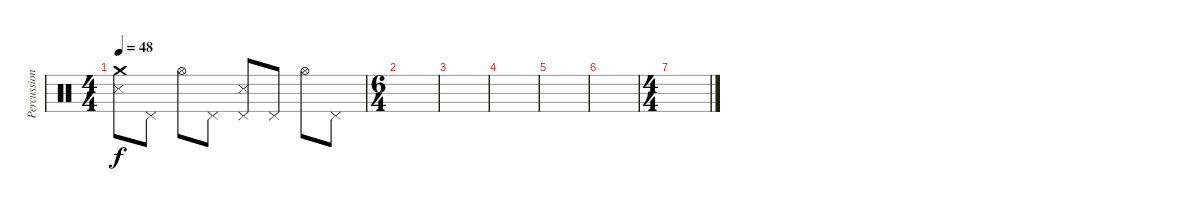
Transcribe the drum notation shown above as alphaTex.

\track ("Percussion" "Percussion") {instrument percussion}
\staff {score}
\articulation defaults
\ts (4 4)
\tempo 48
\clef neutral
\ks c
("Crash medium (hit)" "Metronome (hit)").8{dy f} "Pedal Hi-Hat (hit)".8 "Hi-Hat (open)".8 "Pedal Hi-Hat (hit)".8 ("Pedal Hi-Hat (hit)" "Metronome (hit)").8 "Pedal Hi-Hat (hit)".8 "Hi-Hat (open)".8 "Pedal Hi-Hat (hit)".8 |
\ts (6 4)
|
|
|
|
|
\ts (4 4)
